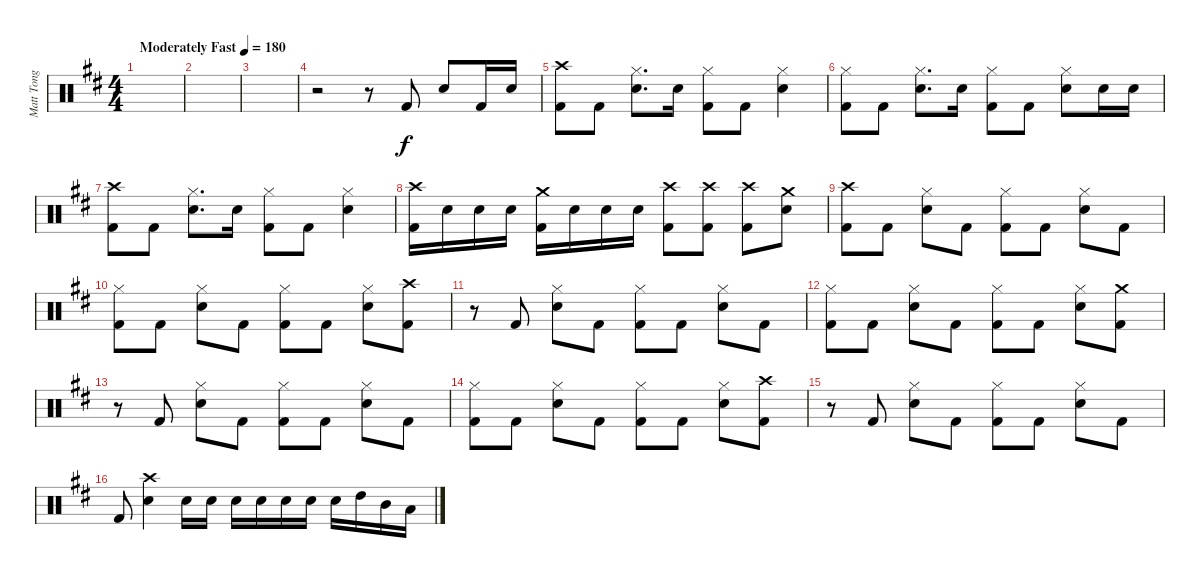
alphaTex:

\track ("Matt Tong" "Matt Tong") {instrument percussion}
\staff {score}
\articulation defaults
\ts (4 4)
\tempo (180 "Moderately Fast")
\clef neutral
\ks d
|
|
|
r.2 r.8 "Kick (hit) 2".8 "Electric Snare (hit)".8 "Kick (hit) 2".16 "Electric Snare (hit)".16 |
("Crash high (hit)" "Kick (hit) 2").8 "Kick (hit) 2".8 ("Hi-Hat (closed)" "Electric Snare (hit)").8{d} "Electric Snare (hit)".16 ("Hi-Hat (closed)" "Kick (hit) 2").8 "Kick (hit) 2".8 ("Hi-Hat (closed)" "Electric Snare (hit)").4 |
("Hi-Hat (closed)" "Kick (hit) 2").8 "Kick (hit) 2".8 ("Hi-Hat (closed)" "Electric Snare (hit)").8{d} "Electric Snare (hit)".16 ("Hi-Hat (closed)" "Kick (hit) 2").8 "Kick (hit) 2".8 ("Hi-Hat (closed)" "Electric Snare (hit)").8 "Electric Snare (hit)".16 "Electric Snare (hit)".16 |
("Crash high (hit)" "Kick (hit) 2").8 "Kick (hit) 2".8 ("Hi-Hat (closed)" "Electric Snare (hit)").8{d} "Electric Snare (hit)".16 ("Hi-Hat (closed)" "Kick (hit) 2").8 "Kick (hit) 2".8 ("Hi-Hat (closed)" "Electric Snare (hit)").4 |
("Crash high (hit)" "Kick (hit) 2").16 "Electric Snare (hit)".16 "Electric Snare (hit)".16 "Electric Snare (hit)".16 ("Crash medium (hit)" "Kick (hit) 2").16 "Electric Snare (hit)".16 "Electric Snare (hit)".16 "Electric Snare (hit)".16 ("Crash high (hit)" "Kick (hit) 2").8 ("Crash high (hit)" "Kick (hit) 2").8 ("Crash high (hit)" "Kick (hit) 2").8 ("Crash medium (hit)" "Electric Snare (hit)").8 |
("Crash high (hit)" "Kick (hit) 2").8 "Kick (hit) 2".8 ("Hi-Hat (closed)" "Electric Snare (hit)").8 "Kick (hit) 2".8 ("Hi-Hat (closed)" "Kick (hit) 2").8 "Kick (hit) 2".8 ("Hi-Hat (closed)" "Electric Snare (hit)").8 "Kick (hit) 2".8 |
("Hi-Hat (closed)" "Kick (hit) 2").8 "Kick (hit) 2".8 ("Hi-Hat (closed)" "Electric Snare (hit)").8 "Kick (hit) 2".8 ("Hi-Hat (closed)" "Kick (hit) 2").8 "Kick (hit) 2".8 ("Hi-Hat (closed)" "Electric Snare (hit)").8 ("Crash high (hit)" "Kick (hit) 2").8 |
r.8 "Kick (hit) 2".8 ("Hi-Hat (closed)" "Electric Snare (hit)").8 "Kick (hit) 2".8 ("Hi-Hat (closed)" "Kick (hit) 2").8 "Kick (hit) 2".8 ("Hi-Hat (closed)" "Electric Snare (hit)").8 "Kick (hit) 2".8 |
("Hi-Hat (closed)" "Kick (hit) 2").8 "Kick (hit) 2".8 ("Hi-Hat (closed)" "Electric Snare (hit)").8 "Kick (hit) 2".8 ("Hi-Hat (closed)" "Kick (hit) 2").8 "Kick (hit) 2".8 ("Hi-Hat (closed)" "Electric Snare (hit)").8 ("Crash medium (hit)" "Kick (hit) 2").8 |
r.8 "Kick (hit) 2".8 ("Hi-Hat (closed)" "Electric Snare (hit)").8 "Kick (hit) 2".8 ("Hi-Hat (closed)" "Kick (hit) 2").8 "Kick (hit) 2".8 ("Hi-Hat (closed)" "Electric Snare (hit)").8 "Kick (hit) 2".8 |
("Hi-Hat (closed)" "Kick (hit) 2").8 "Kick (hit) 2".8 ("Hi-Hat (closed)" "Electric Snare (hit)").8 "Kick (hit) 2".8 ("Hi-Hat (closed)" "Kick (hit) 2").8 "Kick (hit) 2".8 ("Hi-Hat (closed)" "Electric Snare (hit)").8 ("Crash high (hit)" "Kick (hit) 2").8 |
r.8 "Kick (hit) 2".8 ("Hi-Hat (closed)" "Electric Snare (hit)").8 "Kick (hit) 2".8 ("Hi-Hat (closed)" "Kick (hit) 2").8 "Kick (hit) 2".8 ("Hi-Hat (closed)" "Electric Snare (hit)").8 "Kick (hit) 2".8 |
"Kick (hit) 2".8 ("Crash high (hit)" "Electric Snare (hit)").4 "Electric Snare (hit)".16 "Electric Snare (hit)".16 "Electric Snare (hit)".16 "Electric Snare (hit)".16 "Electric Snare (hit)".16 "Electric Snare (hit)".16 "Electric Snare (hit)".16 "High Tom (hit)".16 "Mid Tom (hit)".16 "Low Tom (hit)".16
